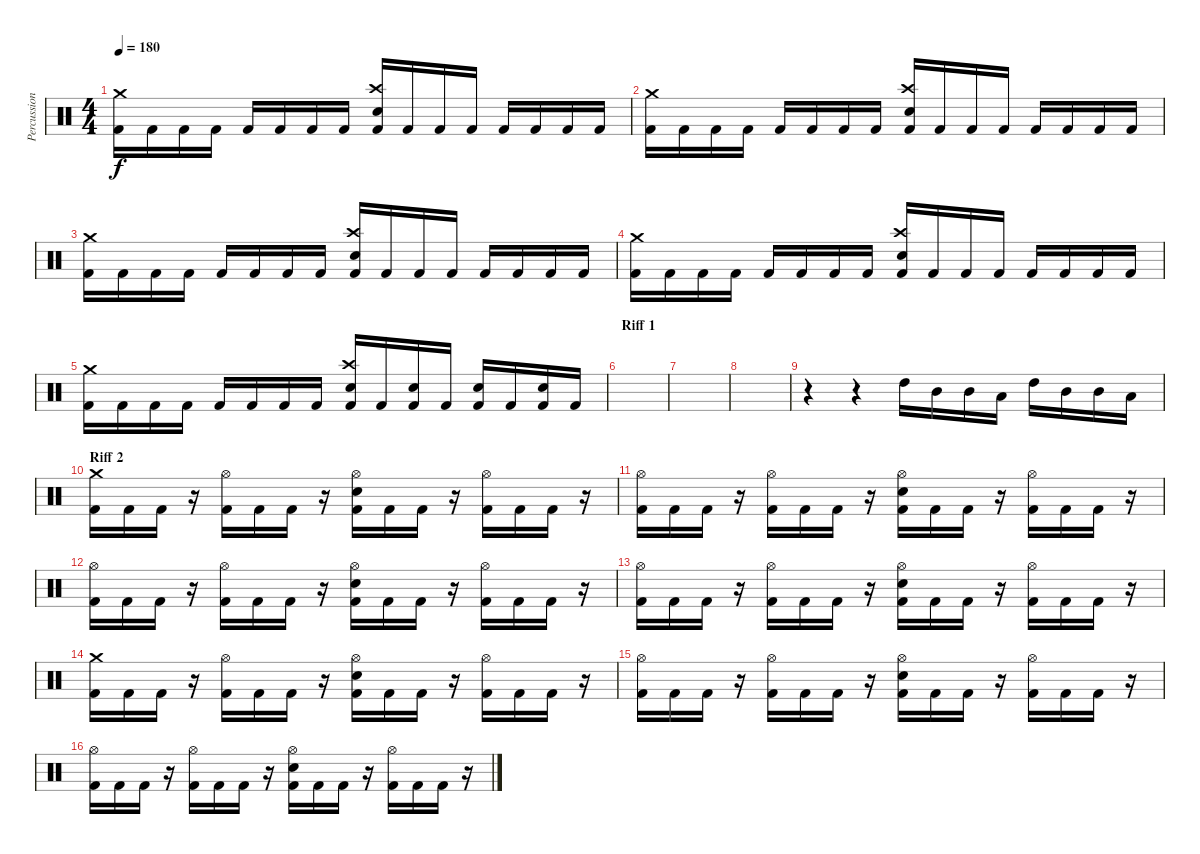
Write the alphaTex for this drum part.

\track ("Percussions" "Percussion") {instrument percussion}
\staff {score}
\articulation defaults
\ts (4 4)
\tempo 180
\clef neutral
\ks c
("Crash medium (hit)" "Kick (hit) 2").16{dy f} "Kick (hit) 2".16 "Kick (hit) 2".16 "Kick (hit) 2".16 "Kick (hit) 2".16 "Kick (hit) 2".16 "Kick (hit) 2".16 "Kick (hit) 2".16 ("Crash high (hit)" "Electric Snare (hit)" "Kick (hit) 2").16 "Kick (hit) 2".16 "Kick (hit) 2".16 "Kick (hit) 2".16 "Kick (hit) 2".16 "Kick (hit) 2".16 "Kick (hit) 2".16 "Kick (hit) 2".16 |
("Crash medium (hit)" "Kick (hit) 2").16 "Kick (hit) 2".16 "Kick (hit) 2".16 "Kick (hit) 2".16 "Kick (hit) 2".16 "Kick (hit) 2".16 "Kick (hit) 2".16 "Kick (hit) 2".16 ("Crash high (hit)" "Electric Snare (hit)" "Kick (hit) 2").16 "Kick (hit) 2".16 "Kick (hit) 2".16 "Kick (hit) 2".16 "Kick (hit) 2".16 "Kick (hit) 2".16 "Kick (hit) 2".16 "Kick (hit) 2".16 |
("Crash medium (hit)" "Kick (hit) 2").16 "Kick (hit) 2".16 "Kick (hit) 2".16 "Kick (hit) 2".16 "Kick (hit) 2".16 "Kick (hit) 2".16 "Kick (hit) 2".16 "Kick (hit) 2".16 ("Crash high (hit)" "Electric Snare (hit)" "Kick (hit) 2").16 "Kick (hit) 2".16 "Kick (hit) 2".16 "Kick (hit) 2".16 "Kick (hit) 2".16 "Kick (hit) 2".16 "Kick (hit) 2".16 "Kick (hit) 2".16 |
("Crash medium (hit)" "Kick (hit) 2").16 "Kick (hit) 2".16 "Kick (hit) 2".16 "Kick (hit) 2".16 "Kick (hit) 2".16 "Kick (hit) 2".16 "Kick (hit) 2".16 "Kick (hit) 2".16 ("Crash high (hit)" "Electric Snare (hit)" "Kick (hit) 2").16 "Kick (hit) 2".16 "Kick (hit) 2".16 "Kick (hit) 2".16 "Kick (hit) 2".16 "Kick (hit) 2".16 "Kick (hit) 2".16 "Kick (hit) 2".16 |
("Crash medium (hit)" "Kick (hit) 2").16 "Kick (hit) 2".16 "Kick (hit) 2".16 "Kick (hit) 2".16 "Kick (hit) 2".16 "Kick (hit) 2".16 "Kick (hit) 2".16 "Kick (hit) 2".16 ("Crash high (hit)" "Electric Snare (hit)" "Kick (hit) 2").16 "Kick (hit) 2".16 ("Electric Snare (hit)" "Kick (hit) 2").16 "Kick (hit) 2".16 ("Electric Snare (hit)" "Kick (hit) 2").16 "Kick (hit) 2".16 ("Electric Snare (hit)" "Kick (hit) 2").16 "Kick (hit) 2".16 |
\section ("" "Riff 1")
|
|
|
r.4 r.4 "High Tom (hit)".16 "Mid Tom (hit)".16 "Mid Tom (hit)".16 "Low Tom (hit)".16 "High Tom (hit)".16 "Mid Tom (hit)".16 "Mid Tom (hit)".16 "Low Tom (hit)".16 |
\section ("" "Riff 2")
("Crash medium (hit)" "Kick (hit) 2").16 "Kick (hit) 2".16 "Kick (hit) 2".16 r.16 ("Hi-Hat (open)" "Kick (hit) 2").16 "Kick (hit) 2".16 "Kick (hit) 2".16 r.16 ("Hi-Hat (open)" "Electric Snare (hit)" "Kick (hit) 2").16 "Kick (hit) 2".16 "Kick (hit) 2".16 r.16 ("Hi-Hat (open)" "Kick (hit) 2").16 "Kick (hit) 2".16 "Kick (hit) 2".16 r.16 |
("Hi-Hat (open)" "Kick (hit) 2").16 "Kick (hit) 2".16 "Kick (hit) 2".16 r.16 ("Hi-Hat (open)" "Kick (hit) 2").16 "Kick (hit) 2".16 "Kick (hit) 2".16 r.16 ("Hi-Hat (open)" "Electric Snare (hit)" "Kick (hit) 2").16 "Kick (hit) 2".16 "Kick (hit) 2".16 r.16 ("Hi-Hat (open)" "Kick (hit) 2").16 "Kick (hit) 2".16 "Kick (hit) 2".16 r.16 |
("Hi-Hat (open)" "Kick (hit) 2").16 "Kick (hit) 2".16 "Kick (hit) 2".16 r.16 ("Hi-Hat (open)" "Kick (hit) 2").16 "Kick (hit) 2".16 "Kick (hit) 2".16 r.16 ("Hi-Hat (open)" "Electric Snare (hit)" "Kick (hit) 2").16 "Kick (hit) 2".16 "Kick (hit) 2".16 r.16 ("Hi-Hat (open)" "Kick (hit) 2").16 "Kick (hit) 2".16 "Kick (hit) 2".16 r.16 |
("Hi-Hat (open)" "Kick (hit) 2").16 "Kick (hit) 2".16 "Kick (hit) 2".16 r.16 ("Hi-Hat (open)" "Kick (hit) 2").16 "Kick (hit) 2".16 "Kick (hit) 2".16 r.16 ("Hi-Hat (open)" "Electric Snare (hit)" "Kick (hit) 2").16 "Kick (hit) 2".16 "Kick (hit) 2".16 r.16 ("Hi-Hat (open)" "Kick (hit) 2").16 "Kick (hit) 2".16 "Kick (hit) 2".16 r.16 |
("Crash medium (hit)" "Kick (hit) 2").16 "Kick (hit) 2".16 "Kick (hit) 2".16 r.16 ("Hi-Hat (open)" "Kick (hit) 2").16 "Kick (hit) 2".16 "Kick (hit) 2".16 r.16 ("Hi-Hat (open)" "Electric Snare (hit)" "Kick (hit) 2").16 "Kick (hit) 2".16 "Kick (hit) 2".16 r.16 ("Hi-Hat (open)" "Kick (hit) 2").16 "Kick (hit) 2".16 "Kick (hit) 2".16 r.16 |
("Hi-Hat (open)" "Kick (hit) 2").16 "Kick (hit) 2".16 "Kick (hit) 2".16 r.16 ("Hi-Hat (open)" "Kick (hit) 2").16 "Kick (hit) 2".16 "Kick (hit) 2".16 r.16 ("Hi-Hat (open)" "Electric Snare (hit)" "Kick (hit) 2").16 "Kick (hit) 2".16 "Kick (hit) 2".16 r.16 ("Hi-Hat (open)" "Kick (hit) 2").16 "Kick (hit) 2".16 "Kick (hit) 2".16 r.16 |
("Hi-Hat (open)" "Kick (hit) 2").16 "Kick (hit) 2".16 "Kick (hit) 2".16 r.16 ("Hi-Hat (open)" "Kick (hit) 2").16 "Kick (hit) 2".16 "Kick (hit) 2".16 r.16 ("Hi-Hat (open)" "Electric Snare (hit)" "Kick (hit) 2").16 "Kick (hit) 2".16 "Kick (hit) 2".16 r.16 ("Hi-Hat (open)" "Kick (hit) 2").16 "Kick (hit) 2".16 "Kick (hit) 2".16 r.16
